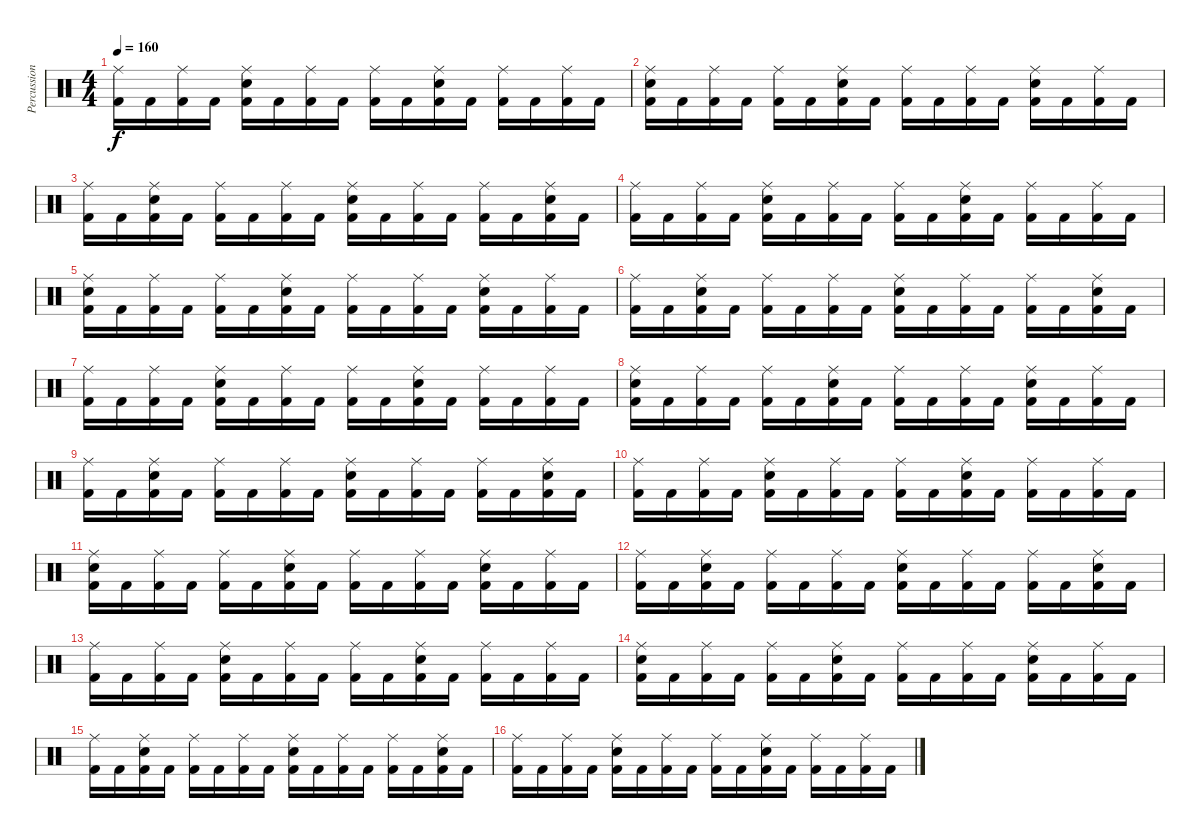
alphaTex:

\track ("Percussions" "Percussion") {instrument percussion}
\staff {score}
\articulation defaults
\ts (4 4)
\tempo 160
\clef neutral
\ks c
("Kick (hit) 2" "Ride (middle)").16{dy f} "Kick (hit) 2".16 ("Kick (hit) 2" "Ride (middle)").16 "Kick (hit) 2".16 ("Kick (hit) 2" "Electric Snare (hit)" "Ride (middle)").16 "Kick (hit) 2".16 ("Kick (hit) 2" "Ride (middle)").16 "Kick (hit) 2".16 ("Kick (hit) 2" "Ride (middle)").16 "Kick (hit) 2".16 ("Kick (hit) 2" "Electric Snare (hit)" "Ride (middle)").16 "Kick (hit) 2".16 ("Kick (hit) 2" "Ride (middle)").16 "Kick (hit) 2".16 ("Kick (hit) 2" "Ride (middle)").16 "Kick (hit) 2".16 |
("Kick (hit) 2" "Electric Snare (hit)" "Ride (middle)").16 "Kick (hit) 2".16 ("Kick (hit) 2" "Ride (middle)").16 "Kick (hit) 2".16 ("Kick (hit) 2" "Ride (middle)").16 "Kick (hit) 2".16 ("Kick (hit) 2" "Electric Snare (hit)" "Ride (middle)").16 "Kick (hit) 2".16 ("Kick (hit) 2" "Ride (middle)").16 "Kick (hit) 2".16 ("Kick (hit) 2" "Ride (middle)").16 "Kick (hit) 2".16 ("Kick (hit) 2" "Electric Snare (hit)" "Ride (middle)").16 "Kick (hit) 2".16 ("Kick (hit) 2" "Ride (middle)").16 "Kick (hit) 2".16 |
("Kick (hit) 2" "Ride (middle)").16 "Kick (hit) 2".16 ("Kick (hit) 2" "Electric Snare (hit)" "Ride (middle)").16 "Kick (hit) 2".16 ("Kick (hit) 2" "Ride (middle)").16 "Kick (hit) 2".16 ("Kick (hit) 2" "Ride (middle)").16 "Kick (hit) 2".16 ("Kick (hit) 2" "Electric Snare (hit)" "Ride (middle)").16 "Kick (hit) 2".16 ("Kick (hit) 2" "Ride (middle)").16 "Kick (hit) 2".16 ("Kick (hit) 2" "Ride (middle)").16 "Kick (hit) 2".16 ("Kick (hit) 2" "Electric Snare (hit)" "Ride (middle)").16 "Kick (hit) 2".16 |
("Kick (hit) 2" "Ride (middle)").16 "Kick (hit) 2".16 ("Kick (hit) 2" "Ride (middle)").16 "Kick (hit) 2".16 ("Kick (hit) 2" "Electric Snare (hit)" "Ride (middle)").16 "Kick (hit) 2".16 ("Kick (hit) 2" "Ride (middle)").16 "Kick (hit) 2".16 ("Kick (hit) 2" "Ride (middle)").16 "Kick (hit) 2".16 ("Kick (hit) 2" "Electric Snare (hit)" "Ride (middle)").16 "Kick (hit) 2".16 ("Kick (hit) 2" "Ride (middle)").16 "Kick (hit) 2".16 ("Kick (hit) 2" "Ride (middle)").16 "Kick (hit) 2".16 |
("Kick (hit) 2" "Electric Snare (hit)" "Ride (middle)").16 "Kick (hit) 2".16 ("Kick (hit) 2" "Ride (middle)").16 "Kick (hit) 2".16 ("Kick (hit) 2" "Ride (middle)").16 "Kick (hit) 2".16 ("Kick (hit) 2" "Electric Snare (hit)" "Ride (middle)").16 "Kick (hit) 2".16 ("Kick (hit) 2" "Ride (middle)").16 "Kick (hit) 2".16 ("Kick (hit) 2" "Ride (middle)").16 "Kick (hit) 2".16 ("Kick (hit) 2" "Electric Snare (hit)" "Ride (middle)").16 "Kick (hit) 2".16 ("Kick (hit) 2" "Ride (middle)").16 "Kick (hit) 2".16 |
("Kick (hit) 2" "Ride (middle)").16 "Kick (hit) 2".16 ("Kick (hit) 2" "Electric Snare (hit)" "Ride (middle)").16 "Kick (hit) 2".16 ("Kick (hit) 2" "Ride (middle)").16 "Kick (hit) 2".16 ("Kick (hit) 2" "Ride (middle)").16 "Kick (hit) 2".16 ("Kick (hit) 2" "Electric Snare (hit)" "Ride (middle)").16 "Kick (hit) 2".16 ("Kick (hit) 2" "Ride (middle)").16 "Kick (hit) 2".16 ("Kick (hit) 2" "Ride (middle)").16 "Kick (hit) 2".16 ("Kick (hit) 2" "Electric Snare (hit)" "Ride (middle)").16 "Kick (hit) 2".16 |
("Kick (hit) 2" "Ride (middle)").16 "Kick (hit) 2".16 ("Kick (hit) 2" "Ride (middle)").16 "Kick (hit) 2".16 ("Kick (hit) 2" "Electric Snare (hit)" "Ride (middle)").16 "Kick (hit) 2".16 ("Kick (hit) 2" "Ride (middle)").16 "Kick (hit) 2".16 ("Kick (hit) 2" "Ride (middle)").16 "Kick (hit) 2".16 ("Kick (hit) 2" "Electric Snare (hit)" "Ride (middle)").16 "Kick (hit) 2".16 ("Kick (hit) 2" "Ride (middle)").16 "Kick (hit) 2".16 ("Kick (hit) 2" "Ride (middle)").16 "Kick (hit) 2".16 |
("Kick (hit) 2" "Electric Snare (hit)" "Ride (middle)").16 "Kick (hit) 2".16 ("Kick (hit) 2" "Ride (middle)").16 "Kick (hit) 2".16 ("Kick (hit) 2" "Ride (middle)").16 "Kick (hit) 2".16 ("Kick (hit) 2" "Electric Snare (hit)" "Ride (middle)").16 "Kick (hit) 2".16 ("Kick (hit) 2" "Ride (middle)").16 "Kick (hit) 2".16 ("Kick (hit) 2" "Ride (middle)").16 "Kick (hit) 2".16 ("Kick (hit) 2" "Electric Snare (hit)" "Ride (middle)").16 "Kick (hit) 2".16 ("Kick (hit) 2" "Ride (middle)").16 "Kick (hit) 2".16 |
("Kick (hit) 2" "Ride (middle)").16 "Kick (hit) 2".16 ("Kick (hit) 2" "Electric Snare (hit)" "Ride (middle)").16 "Kick (hit) 2".16 ("Kick (hit) 2" "Ride (middle)").16 "Kick (hit) 2".16 ("Kick (hit) 2" "Ride (middle)").16 "Kick (hit) 2".16 ("Kick (hit) 2" "Electric Snare (hit)" "Ride (middle)").16 "Kick (hit) 2".16 ("Kick (hit) 2" "Ride (middle)").16 "Kick (hit) 2".16 ("Kick (hit) 2" "Ride (middle)").16 "Kick (hit) 2".16 ("Kick (hit) 2" "Electric Snare (hit)" "Ride (middle)").16 "Kick (hit) 2".16 |
("Kick (hit) 2" "Ride (middle)").16 "Kick (hit) 2".16 ("Kick (hit) 2" "Ride (middle)").16 "Kick (hit) 2".16 ("Kick (hit) 2" "Electric Snare (hit)" "Ride (middle)").16 "Kick (hit) 2".16 ("Kick (hit) 2" "Ride (middle)").16 "Kick (hit) 2".16 ("Kick (hit) 2" "Ride (middle)").16 "Kick (hit) 2".16 ("Kick (hit) 2" "Electric Snare (hit)" "Ride (middle)").16 "Kick (hit) 2".16 ("Kick (hit) 2" "Ride (middle)").16 "Kick (hit) 2".16 ("Kick (hit) 2" "Ride (middle)").16 "Kick (hit) 2".16 |
("Kick (hit) 2" "Electric Snare (hit)" "Ride (middle)").16 "Kick (hit) 2".16 ("Kick (hit) 2" "Ride (middle)").16 "Kick (hit) 2".16 ("Kick (hit) 2" "Ride (middle)").16 "Kick (hit) 2".16 ("Kick (hit) 2" "Electric Snare (hit)" "Ride (middle)").16 "Kick (hit) 2".16 ("Kick (hit) 2" "Ride (middle)").16 "Kick (hit) 2".16 ("Kick (hit) 2" "Ride (middle)").16 "Kick (hit) 2".16 ("Kick (hit) 2" "Electric Snare (hit)" "Ride (middle)").16 "Kick (hit) 2".16 ("Kick (hit) 2" "Ride (middle)").16 "Kick (hit) 2".16 |
("Kick (hit) 2" "Ride (middle)").16 "Kick (hit) 2".16 ("Kick (hit) 2" "Electric Snare (hit)" "Ride (middle)").16 "Kick (hit) 2".16 ("Kick (hit) 2" "Ride (middle)").16 "Kick (hit) 2".16 ("Kick (hit) 2" "Ride (middle)").16 "Kick (hit) 2".16 ("Kick (hit) 2" "Electric Snare (hit)" "Ride (middle)").16 "Kick (hit) 2".16 ("Kick (hit) 2" "Ride (middle)").16 "Kick (hit) 2".16 ("Kick (hit) 2" "Ride (middle)").16 "Kick (hit) 2".16 ("Kick (hit) 2" "Electric Snare (hit)" "Ride (middle)").16 "Kick (hit) 2".16 |
("Kick (hit) 2" "Ride (middle)").16 "Kick (hit) 2".16 ("Kick (hit) 2" "Ride (middle)").16 "Kick (hit) 2".16 ("Kick (hit) 2" "Electric Snare (hit)" "Ride (middle)").16 "Kick (hit) 2".16 ("Kick (hit) 2" "Ride (middle)").16 "Kick (hit) 2".16 ("Kick (hit) 2" "Ride (middle)").16 "Kick (hit) 2".16 ("Kick (hit) 2" "Electric Snare (hit)" "Ride (middle)").16 "Kick (hit) 2".16 ("Kick (hit) 2" "Ride (middle)").16 "Kick (hit) 2".16 ("Kick (hit) 2" "Ride (middle)").16 "Kick (hit) 2".16 |
("Kick (hit) 2" "Electric Snare (hit)" "Ride (middle)").16 "Kick (hit) 2".16 ("Kick (hit) 2" "Ride (middle)").16 "Kick (hit) 2".16 ("Kick (hit) 2" "Ride (middle)").16 "Kick (hit) 2".16 ("Kick (hit) 2" "Electric Snare (hit)" "Ride (middle)").16 "Kick (hit) 2".16 ("Kick (hit) 2" "Ride (middle)").16 "Kick (hit) 2".16 ("Kick (hit) 2" "Ride (middle)").16 "Kick (hit) 2".16 ("Kick (hit) 2" "Electric Snare (hit)" "Ride (middle)").16 "Kick (hit) 2".16 ("Kick (hit) 2" "Ride (middle)").16 "Kick (hit) 2".16 |
("Kick (hit) 2" "Ride (middle)").16 "Kick (hit) 2".16 ("Kick (hit) 2" "Electric Snare (hit)" "Ride (middle)").16 "Kick (hit) 2".16 ("Kick (hit) 2" "Ride (middle)").16 "Kick (hit) 2".16 ("Kick (hit) 2" "Ride (middle)").16 "Kick (hit) 2".16 ("Kick (hit) 2" "Electric Snare (hit)" "Ride (middle)").16 "Kick (hit) 2".16 ("Kick (hit) 2" "Ride (middle)").16 "Kick (hit) 2".16 ("Kick (hit) 2" "Ride (middle)").16 "Kick (hit) 2".16 ("Kick (hit) 2" "Electric Snare (hit)" "Ride (middle)").16 "Kick (hit) 2".16 |
("Kick (hit) 2" "Ride (middle)").16 "Kick (hit) 2".16 ("Kick (hit) 2" "Ride (middle)").16 "Kick (hit) 2".16 ("Kick (hit) 2" "Electric Snare (hit)" "Ride (middle)").16 "Kick (hit) 2".16 ("Kick (hit) 2" "Ride (middle)").16 "Kick (hit) 2".16 ("Kick (hit) 2" "Ride (middle)").16 "Kick (hit) 2".16 ("Kick (hit) 2" "Electric Snare (hit)" "Ride (middle)").16 "Kick (hit) 2".16 ("Kick (hit) 2" "Ride (middle)").16 "Kick (hit) 2".16 ("Kick (hit) 2" "Ride (middle)").16 "Kick (hit) 2".16
